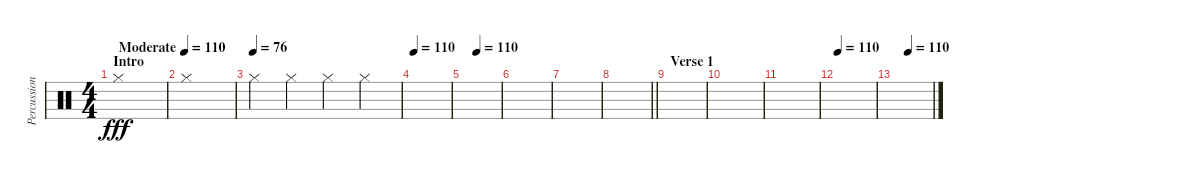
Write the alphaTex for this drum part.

\track ("Percussion" "Percussion") {instrument percussion}
\staff {score}
\articulation defaults
\ts (4 4)
\section ("" "Intro")
\tempo (110 "Moderate")
\tempo 150
\tempo (110 "Moderate")
\clef neutral
\ks c "Hi-Hat (closed)".1{dy fff}
|
"Hi-Hat (closed)".1 |
\tempo (76)
"Hi-Hat (closed)".4 "Hi-Hat (closed)".4 "Hi-Hat (closed)".4 "Hi-Hat (closed)".4 |
\tempo 110
|
\tempo (110 0.3541666666666667)
|
|
|
\barLineRight lightlight
|
\section ("" "Verse 1")
|
|
|
\tempo 110
|
\tempo (110 0.3541666666666667)
